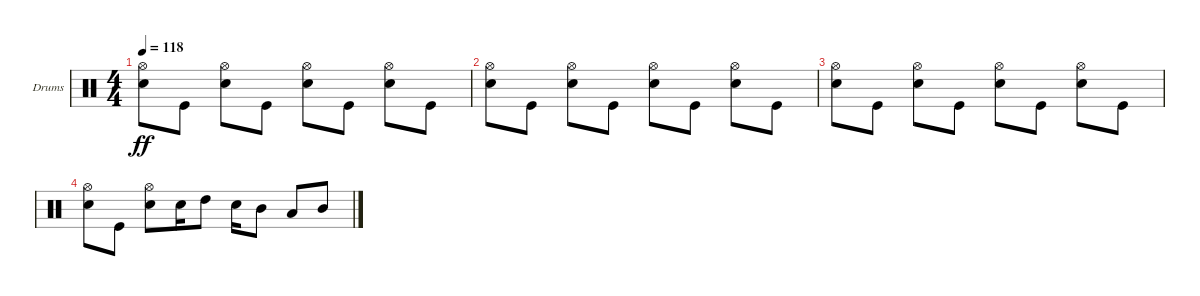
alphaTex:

\defaultSystemsLayout 4
\bracketExtendMode groupsimilarinstruments
\firstSystemTrackNameOrientation horizontal
\otherSystemsTrackNameOrientation horizontal
\track ("Drumkit" "Drums") {instrument percussion}
\staff {score}
\articulation defaults
\ts (4 4)
\tempo 118
\clef neutral
\ks c
("Snare (hit) 2" "Hi-Hat (open)").8{dy ff} "Kick (hit)".8 ("Snare (hit) 2" "Hi-Hat (open)").8 "Kick (hit)".8 ("Hi-Hat (open)" "Snare (hit) 2").8 "Kick (hit)".8 ("Hi-Hat (open)" "Snare (hit) 2").8 "Kick (hit)".8 |
("Snare (hit) 2" "Hi-Hat (open)").8 "Kick (hit)".8 ("Snare (hit) 2" "Hi-Hat (open)").8 "Kick (hit)".8 ("Hi-Hat (open)" "Snare (hit) 2").8 "Kick (hit)".8 ("Hi-Hat (open)" "Snare (hit) 2").8 "Kick (hit)".8 |
("Snare (hit) 2" "Hi-Hat (open)").8 "Kick (hit)".8 ("Snare (hit) 2" "Hi-Hat (open)").8 "Kick (hit)".8 ("Hi-Hat (open)" "Snare (hit) 2").8 "Kick (hit)".8 ("Hi-Hat (open)" "Snare (hit) 2").8 "Kick (hit)".8 |
("Snare (hit) 2" "Hi-Hat (open)").8 "Kick (hit)".8 ("Snare (hit) 2" "Hi-Hat (open)").8 "Snare (hit) 2".16 "High Tom (hit)".8 "Snare (hit) 2".16 "Mid Tom (hit)".8 "Low Tom (hit)".8 "Mid Tom (hit)".8
